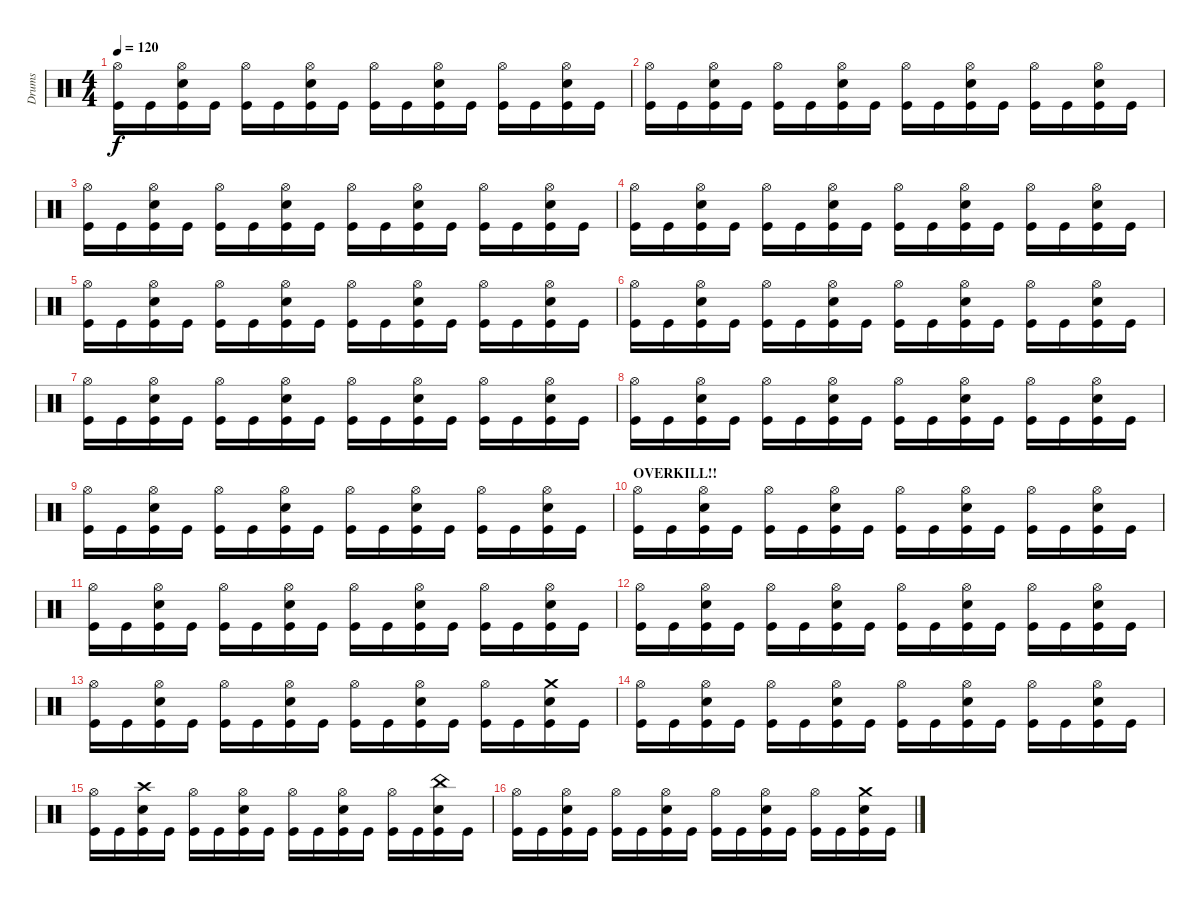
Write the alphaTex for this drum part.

\track ("Drums" "Drums") {instrument percussion}
\staff {score}
\articulation defaults
\ts (4 4)
\tempo 120
\clef neutral
\ks c
("Hi-Hat (open)" "Kick (hit)").16{dy f} "Kick (hit)".16 ("Hi-Hat (open)" "Snare (hit) 2" "Kick (hit)").16 "Kick (hit)".16 ("Hi-Hat (open)" "Kick (hit)").16 "Kick (hit)".16 ("Hi-Hat (open)" "Snare (hit) 2" "Kick (hit)").16 "Kick (hit)".16 ("Hi-Hat (open)" "Kick (hit)").16 "Kick (hit)".16 ("Hi-Hat (open)" "Snare (hit) 2" "Kick (hit)").16 "Kick (hit)".16 ("Hi-Hat (open)" "Kick (hit)").16 "Kick (hit)".16 ("Hi-Hat (open)" "Snare (hit) 2" "Kick (hit)").16 "Kick (hit)".16 |
("Hi-Hat (open)" "Kick (hit)").16 "Kick (hit)".16 ("Hi-Hat (open)" "Snare (hit) 2" "Kick (hit)").16 "Kick (hit)".16 ("Hi-Hat (open)" "Kick (hit)").16 "Kick (hit)".16 ("Hi-Hat (open)" "Snare (hit) 2" "Kick (hit)").16 "Kick (hit)".16 ("Hi-Hat (open)" "Kick (hit)").16 "Kick (hit)".16 ("Hi-Hat (open)" "Snare (hit) 2" "Kick (hit)").16 "Kick (hit)".16 ("Hi-Hat (open)" "Kick (hit)").16 "Kick (hit)".16 ("Hi-Hat (open)" "Snare (hit) 2" "Kick (hit)").16 "Kick (hit)".16 |
("Hi-Hat (open)" "Kick (hit)").16 "Kick (hit)".16 ("Hi-Hat (open)" "Snare (hit) 2" "Kick (hit)").16 "Kick (hit)".16 ("Hi-Hat (open)" "Kick (hit)").16 "Kick (hit)".16 ("Hi-Hat (open)" "Snare (hit) 2" "Kick (hit)").16 "Kick (hit)".16 ("Hi-Hat (open)" "Kick (hit)").16 "Kick (hit)".16 ("Hi-Hat (open)" "Snare (hit) 2" "Kick (hit)").16 "Kick (hit)".16 ("Hi-Hat (open)" "Kick (hit)").16 "Kick (hit)".16 ("Hi-Hat (open)" "Snare (hit) 2" "Kick (hit)").16 "Kick (hit)".16 |
("Hi-Hat (open)" "Kick (hit)").16 "Kick (hit)".16 ("Hi-Hat (open)" "Snare (hit) 2" "Kick (hit)").16 "Kick (hit)".16 ("Hi-Hat (open)" "Kick (hit)").16 "Kick (hit)".16 ("Hi-Hat (open)" "Snare (hit) 2" "Kick (hit)").16 "Kick (hit)".16 ("Hi-Hat (open)" "Kick (hit)").16 "Kick (hit)".16 ("Hi-Hat (open)" "Snare (hit) 2" "Kick (hit)").16 "Kick (hit)".16 ("Hi-Hat (open)" "Kick (hit)").16 "Kick (hit)".16 ("Hi-Hat (open)" "Snare (hit) 2" "Kick (hit)").16 "Kick (hit)".16 |
("Hi-Hat (open)" "Kick (hit)").16 "Kick (hit)".16 ("Hi-Hat (open)" "Snare (hit) 2" "Kick (hit)").16 "Kick (hit)".16 ("Hi-Hat (open)" "Kick (hit)").16 "Kick (hit)".16 ("Hi-Hat (open)" "Snare (hit) 2" "Kick (hit)").16 "Kick (hit)".16 ("Hi-Hat (open)" "Kick (hit)").16 "Kick (hit)".16 ("Hi-Hat (open)" "Snare (hit) 2" "Kick (hit)").16 "Kick (hit)".16 ("Hi-Hat (open)" "Kick (hit)").16 "Kick (hit)".16 ("Hi-Hat (open)" "Snare (hit) 2" "Kick (hit)").16 "Kick (hit)".16 |
("Hi-Hat (open)" "Kick (hit)").16 "Kick (hit)".16 ("Hi-Hat (open)" "Snare (hit) 2" "Kick (hit)").16 "Kick (hit)".16 ("Hi-Hat (open)" "Kick (hit)").16 "Kick (hit)".16 ("Hi-Hat (open)" "Snare (hit) 2" "Kick (hit)").16 "Kick (hit)".16 ("Hi-Hat (open)" "Kick (hit)").16 "Kick (hit)".16 ("Hi-Hat (open)" "Snare (hit) 2" "Kick (hit)").16 "Kick (hit)".16 ("Hi-Hat (open)" "Kick (hit)").16 "Kick (hit)".16 ("Hi-Hat (open)" "Snare (hit) 2" "Kick (hit)").16 "Kick (hit)".16 |
("Hi-Hat (open)" "Kick (hit)").16 "Kick (hit)".16 ("Hi-Hat (open)" "Snare (hit) 2" "Kick (hit)").16 "Kick (hit)".16 ("Hi-Hat (open)" "Kick (hit)").16 "Kick (hit)".16 ("Hi-Hat (open)" "Snare (hit) 2" "Kick (hit)").16 "Kick (hit)".16 ("Hi-Hat (open)" "Kick (hit)").16 "Kick (hit)".16 ("Hi-Hat (open)" "Snare (hit) 2" "Kick (hit)").16 "Kick (hit)".16 ("Hi-Hat (open)" "Kick (hit)").16 "Kick (hit)".16 ("Hi-Hat (open)" "Snare (hit) 2" "Kick (hit)").16 "Kick (hit)".16 |
("Hi-Hat (open)" "Kick (hit)").16 "Kick (hit)".16 ("Hi-Hat (open)" "Snare (hit) 2" "Kick (hit)").16 "Kick (hit)".16 ("Hi-Hat (open)" "Kick (hit)").16 "Kick (hit)".16 ("Hi-Hat (open)" "Snare (hit) 2" "Kick (hit)").16 "Kick (hit)".16 ("Hi-Hat (open)" "Kick (hit)").16 "Kick (hit)".16 ("Hi-Hat (open)" "Snare (hit) 2" "Kick (hit)").16 "Kick (hit)".16 ("Hi-Hat (open)" "Kick (hit)").16 "Kick (hit)".16 ("Hi-Hat (open)" "Snare (hit) 2" "Kick (hit)").16 "Kick (hit)".16 |
("Hi-Hat (open)" "Kick (hit)").16 "Kick (hit)".16 ("Hi-Hat (open)" "Snare (hit) 2" "Kick (hit)").16 "Kick (hit)".16 ("Hi-Hat (open)" "Kick (hit)").16 "Kick (hit)".16 ("Hi-Hat (open)" "Snare (hit) 2" "Kick (hit)").16 "Kick (hit)".16 ("Hi-Hat (open)" "Kick (hit)").16 "Kick (hit)".16 ("Hi-Hat (open)" "Snare (hit) 2" "Kick (hit)").16 "Kick (hit)".16 ("Hi-Hat (open)" "Kick (hit)").16 "Kick (hit)".16 ("Hi-Hat (open)" "Snare (hit) 2" "Kick (hit)").16 "Kick (hit)".16 |
\section ("" "OVERKILL!!")
("Hi-Hat (open)" "Kick (hit)").16 "Kick (hit)".16 ("Hi-Hat (open)" "Snare (hit) 2" "Kick (hit)").16 "Kick (hit)".16 ("Hi-Hat (open)" "Kick (hit)").16 "Kick (hit)".16 ("Hi-Hat (open)" "Snare (hit) 2" "Kick (hit)").16 "Kick (hit)".16 ("Hi-Hat (open)" "Kick (hit)").16 "Kick (hit)".16 ("Hi-Hat (open)" "Snare (hit) 2" "Kick (hit)").16 "Kick (hit)".16 ("Hi-Hat (open)" "Kick (hit)").16 "Kick (hit)".16 ("Hi-Hat (open)" "Snare (hit) 2" "Kick (hit)").16 "Kick (hit)".16 |
("Hi-Hat (open)" "Kick (hit)").16 "Kick (hit)".16 ("Hi-Hat (open)" "Snare (hit) 2" "Kick (hit)").16 "Kick (hit)".16 ("Hi-Hat (open)" "Kick (hit)").16 "Kick (hit)".16 ("Hi-Hat (open)" "Snare (hit) 2" "Kick (hit)").16 "Kick (hit)".16 ("Hi-Hat (open)" "Kick (hit)").16 "Kick (hit)".16 ("Hi-Hat (open)" "Snare (hit) 2" "Kick (hit)").16 "Kick (hit)".16 ("Hi-Hat (open)" "Kick (hit)").16 "Kick (hit)".16 ("Hi-Hat (open)" "Snare (hit) 2" "Kick (hit)").16 "Kick (hit)".16 |
("Hi-Hat (open)" "Kick (hit)").16 "Kick (hit)".16 ("Hi-Hat (open)" "Snare (hit) 2" "Kick (hit)").16 "Kick (hit)".16 ("Hi-Hat (open)" "Kick (hit)").16 "Kick (hit)".16 ("Hi-Hat (open)" "Snare (hit) 2" "Kick (hit)").16 "Kick (hit)".16 ("Hi-Hat (open)" "Kick (hit)").16 "Kick (hit)".16 ("Hi-Hat (open)" "Snare (hit) 2" "Kick (hit)").16 "Kick (hit)".16 ("Hi-Hat (open)" "Kick (hit)").16 "Kick (hit)".16 ("Hi-Hat (open)" "Snare (hit) 2" "Kick (hit)").16 "Kick (hit)".16 |
("Hi-Hat (open)" "Kick (hit)").16 "Kick (hit)".16 ("Hi-Hat (open)" "Snare (hit) 2" "Kick (hit)").16 "Kick (hit)".16 ("Hi-Hat (open)" "Kick (hit)").16 "Kick (hit)".16 ("Hi-Hat (open)" "Snare (hit) 2" "Kick (hit)").16 "Kick (hit)".16 ("Hi-Hat (open)" "Kick (hit)").16 "Kick (hit)".16 ("Hi-Hat (open)" "Snare (hit) 2" "Kick (hit)").16 "Kick (hit)".16 ("Hi-Hat (open)" "Kick (hit)").16 "Kick (hit)".16 ("Crash medium (hit)" "Snare (hit) 2" "Kick (hit)").16 "Kick (hit)".16 |
("Hi-Hat (open)" "Kick (hit)").16 "Kick (hit)".16 ("Hi-Hat (open)" "Snare (hit) 2" "Kick (hit)").16 "Kick (hit)".16 ("Hi-Hat (open)" "Kick (hit)").16 "Kick (hit)".16 ("Hi-Hat (open)" "Snare (hit) 2" "Kick (hit)").16 "Kick (hit)".16 ("Hi-Hat (open)" "Kick (hit)").16 "Kick (hit)".16 ("Hi-Hat (open)" "Snare (hit) 2" "Kick (hit)").16 "Kick (hit)".16 ("Hi-Hat (open)" "Kick (hit)").16 "Kick (hit)".16 ("Hi-Hat (open)" "Snare (hit) 2" "Kick (hit)").16 "Kick (hit)".16 |
("Hi-Hat (open)" "Kick (hit)").16 "Kick (hit)".16 ("Crash high (hit)" "Snare (hit) 2" "Kick (hit)").16 "Kick (hit)".16 ("Hi-Hat (open)" "Kick (hit)").16 "Kick (hit)".16 ("Hi-Hat (open)" "Snare (hit) 2" "Kick (hit)").16 "Kick (hit)".16 ("Hi-Hat (open)" "Kick (hit)").16 "Kick (hit)".16 ("Hi-Hat (open)" "Snare (hit) 2" "Kick (hit)").16 "Kick (hit)".16 ("Hi-Hat (open)" "Kick (hit)").16 "Kick (hit)".16 ("China (hit)" "Snare (hit) 2" "Kick (hit)").16 "Kick (hit)".16 |
("Hi-Hat (open)" "Kick (hit)").16 "Kick (hit)".16 ("Hi-Hat (open)" "Snare (hit) 2" "Kick (hit)").16 "Kick (hit)".16 ("Hi-Hat (open)" "Kick (hit)").16 "Kick (hit)".16 ("Hi-Hat (open)" "Snare (hit) 2" "Kick (hit)").16 "Kick (hit)".16 ("Hi-Hat (open)" "Kick (hit)").16 "Kick (hit)".16 ("Hi-Hat (open)" "Snare (hit) 2" "Kick (hit)").16 "Kick (hit)".16 ("Hi-Hat (open)" "Kick (hit)").16 "Kick (hit)".16 ("Crash medium (hit)" "Snare (hit) 2" "Kick (hit)").16 "Kick (hit)".16
